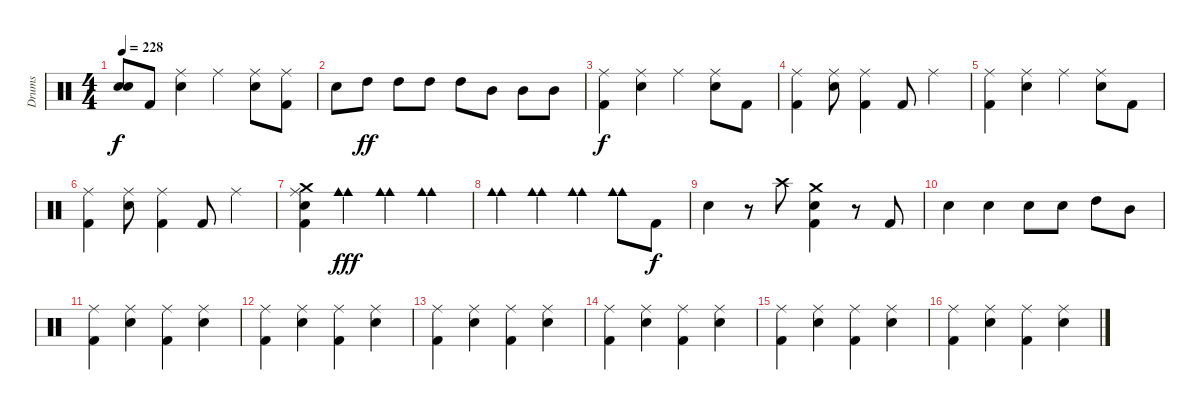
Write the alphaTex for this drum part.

\track ("Drums" "Drums") {instrument percussion}
\staff {score}
\articulation defaults
\ts (4 4)
\tempo 228
\clef neutral
\ks c
("Snare (hit)"{t} "Snare (hit)"{t}).8{dy f} "Kick (hit) 2".8 ("Ride (middle)" "Electric Snare (hit)").4 "Ride (middle)".4 ("Ride (middle)" "Electric Snare (hit)").8 ("Ride (middle)" "Kick (hit) 2").8 |
"Electric Snare (hit)".8 "High Tom (hit)".8{dy ff} "High Tom (hit)".8 "High Tom (hit)".8 "High Tom (hit)".8 "Mid Tom (hit)".8 "Mid Tom (hit)".8 "Mid Tom (hit)".8 |
("Ride (middle)" "Kick (hit) 2").4{dy f} ("Ride (middle)" "Electric Snare (hit)").4 "Ride (middle)".4 ("Ride (middle)" "Electric Snare (hit)").8 "Kick (hit) 2".8 |
("Ride (middle)" "Kick (hit) 2").4 ("Ride (middle)" "Electric Snare (hit)").8 ("Ride (middle)" "Kick (hit) 2").4 "Kick (hit) 2".8 "Ride (middle)".4 |
("Ride (middle)" "Kick (hit) 2").4 ("Ride (middle)" "Electric Snare (hit)").4 "Ride (middle)".4 ("Ride (middle)" "Electric Snare (hit)").8 "Kick (hit) 2".8 |
("Ride (middle)" "Kick (hit) 2").4 ("Ride (middle)" "Electric Snare (hit)").8 ("Ride (middle)" "Kick (hit) 2").4 "Kick (hit) 2".8 "Ride (middle)".4 |
("Crash medium (hit)" "Ride (middle)" "Electric Snare (hit)" "Kick (hit) 2").4 ("Cowbell medium (hit)" "Cowbell medium (hit)").4{dy fff} ("Cowbell medium (hit)" "Cowbell medium (hit)").4 ("Cowbell medium (hit)" "Cowbell medium (hit)").4 |
("Cowbell medium (hit)" "Cowbell medium (hit)").4 ("Cowbell medium (hit)" "Cowbell medium (hit)").4 ("Cowbell medium (hit)" "Cowbell medium (hit)").4 ("Cowbell medium (hit)" "Cowbell medium (hit)").8 "Kick (hit) 2".8{dy f} |
"Electric Snare (hit)".4 r.8 "Crash high (hit)".8 ("Crash medium (hit)" "Electric Snare (hit)" "Kick (hit) 2").4 r.8 "Kick (hit) 2".8 |
"Electric Snare (hit)".4 "Electric Snare (hit)".4 "Electric Snare (hit)".8 "Electric Snare (hit)".8 "High Tom (hit)".8 "Mid Tom (hit)".8 |
("Ride (middle)" "Kick (hit) 2").4 ("Ride (middle)" "Electric Snare (hit)").4 ("Ride (middle)" "Kick (hit) 2").4 ("Ride (middle)" "Electric Snare (hit)").4 |
("Ride (middle)" "Kick (hit) 2").4 ("Ride (middle)" "Electric Snare (hit)").4 ("Ride (middle)" "Kick (hit) 2").4 ("Ride (middle)" "Electric Snare (hit)").4 |
("Ride (middle)" "Kick (hit) 2").4 ("Ride (middle)" "Electric Snare (hit)").4 ("Ride (middle)" "Kick (hit) 2").4 ("Ride (middle)" "Electric Snare (hit)").4 |
("Ride (middle)" "Kick (hit) 2").4 ("Ride (middle)" "Electric Snare (hit)").4 ("Ride (middle)" "Kick (hit) 2").4 ("Ride (middle)" "Electric Snare (hit)").4 |
("Ride (middle)" "Kick (hit) 2").4 ("Ride (middle)" "Electric Snare (hit)").4 ("Ride (middle)" "Kick (hit) 2").4 ("Ride (middle)" "Electric Snare (hit)").4 |
("Ride (middle)" "Kick (hit) 2").4 ("Ride (middle)" "Electric Snare (hit)").4 ("Ride (middle)" "Kick (hit) 2").4 ("Ride (middle)" "Electric Snare (hit)").4
